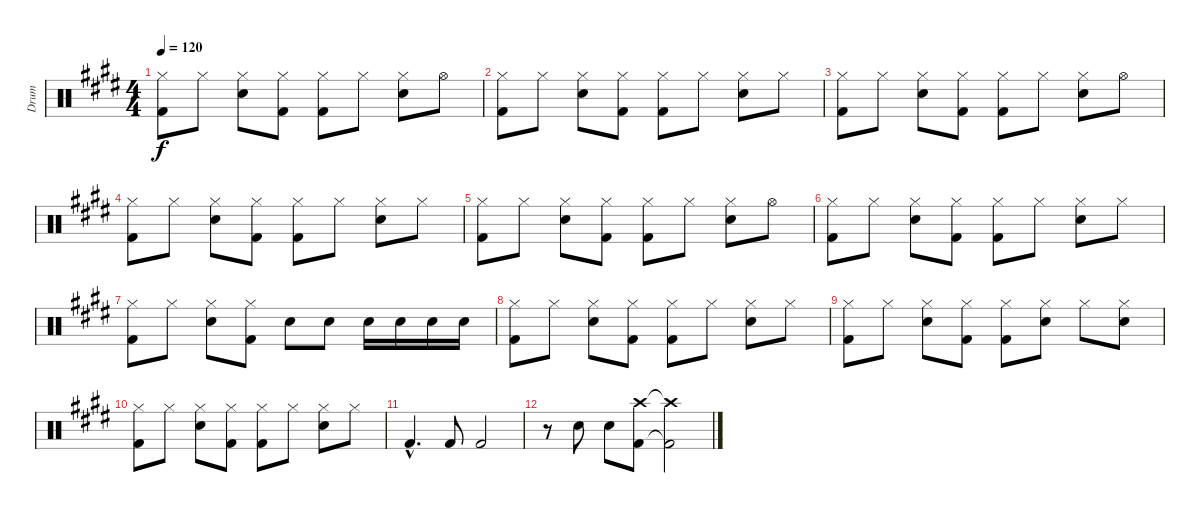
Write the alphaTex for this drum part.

\track ("Drum" "Drum") {instrument percussion}
\staff {score}
\articulation defaults
\ts (4 4)
\tempo 120
\clef neutral
\ks e
("Hi-Hat (closed)" "Kick (hit) 2").8{dy f} "Hi-Hat (closed)".8 ("Hi-Hat (closed)" "Snare (hit) 2").8 ("Hi-Hat (closed)" "Kick (hit) 2").8 ("Hi-Hat (closed)" "Kick (hit) 2").8 "Hi-Hat (closed)".8 ("Hi-Hat (closed)" "Snare (hit) 2").8 "Hi-Hat (open)".8 |
("Hi-Hat (closed)" "Kick (hit) 2").8 "Hi-Hat (closed)".8 ("Hi-Hat (closed)" "Snare (hit) 2").8 ("Hi-Hat (closed)" "Kick (hit) 2").8 ("Hi-Hat (closed)" "Kick (hit) 2").8 "Hi-Hat (closed)".8 ("Hi-Hat (closed)" "Snare (hit) 2").8 "Hi-Hat (closed)".8 |
("Hi-Hat (closed)" "Kick (hit) 2").8 "Hi-Hat (closed)".8 ("Hi-Hat (closed)" "Snare (hit) 2").8 ("Hi-Hat (closed)" "Kick (hit) 2").8 ("Hi-Hat (closed)" "Kick (hit) 2").8 "Hi-Hat (closed)".8 ("Hi-Hat (closed)" "Snare (hit) 2").8 "Hi-Hat (open)".8 |
("Hi-Hat (closed)" "Kick (hit) 2").8 "Hi-Hat (closed)".8 ("Hi-Hat (closed)" "Snare (hit) 2").8 ("Hi-Hat (closed)" "Kick (hit) 2").8 ("Hi-Hat (closed)" "Kick (hit) 2").8 "Hi-Hat (closed)".8 ("Hi-Hat (closed)" "Snare (hit) 2").8 "Hi-Hat (closed)".8 |
("Hi-Hat (closed)" "Kick (hit) 2").8 "Hi-Hat (closed)".8 ("Hi-Hat (closed)" "Snare (hit) 2").8 ("Hi-Hat (closed)" "Kick (hit) 2").8 ("Hi-Hat (closed)" "Kick (hit) 2").8 "Hi-Hat (closed)".8 ("Hi-Hat (closed)" "Snare (hit) 2").8 "Hi-Hat (open)".8 |
("Hi-Hat (closed)" "Kick (hit) 2").8 "Hi-Hat (closed)".8 ("Hi-Hat (closed)" "Snare (hit) 2").8 ("Hi-Hat (closed)" "Kick (hit) 2").8 ("Hi-Hat (closed)" "Kick (hit) 2").8 "Hi-Hat (closed)".8 ("Hi-Hat (closed)" "Snare (hit) 2").8 "Hi-Hat (closed)".8 |
("Hi-Hat (closed)" "Kick (hit) 2").8 "Hi-Hat (closed)".8 ("Hi-Hat (closed)" "Snare (hit) 2").8 ("Hi-Hat (closed)" "Kick (hit) 2").8 "Snare (hit) 2".8 "Snare (hit) 2".8 "Snare (hit) 2".16 "Snare (hit) 2".16 "Snare (hit) 2".16 "Snare (hit) 2".16 |
("Hi-Hat (closed)" "Kick (hit) 2").8 "Hi-Hat (closed)".8 ("Hi-Hat (closed)" "Snare (hit) 2").8 ("Hi-Hat (closed)" "Kick (hit) 2").8 ("Hi-Hat (closed)" "Kick (hit) 2").8 "Hi-Hat (closed)".8 ("Hi-Hat (closed)" "Snare (hit) 2").8 "Hi-Hat (closed)".8 |
("Hi-Hat (closed)" "Kick (hit) 2").8 "Hi-Hat (closed)".8 ("Hi-Hat (closed)" "Snare (hit) 2").8 ("Hi-Hat (closed)" "Kick (hit) 2").8 ("Hi-Hat (closed)" "Kick (hit) 2").8 ("Hi-Hat (closed)" "Snare (hit) 2").8 "Hi-Hat (closed)".8 ("Hi-Hat (closed)" "Snare (hit) 2").8 |
("Hi-Hat (closed)" "Kick (hit) 2").8 "Hi-Hat (closed)".8 ("Hi-Hat (closed)" "Snare (hit) 2").8 ("Hi-Hat (closed)" "Kick (hit) 2").8 ("Hi-Hat (closed)" "Kick (hit) 2").8 "Hi-Hat (closed)".8 ("Hi-Hat (closed)" "Snare (hit) 2").8 "Hi-Hat (closed)".8 |
"Kick (hit) 2"{hac}.4{d} "Kick (hit) 2".8 "Kick (hit) 2".2 |
r.8 "Snare (hit) 2".8 "Snare (hit) 2".8 ("Crash high (hit)" "Kick (hit) 2").8 ("Crash high (hit)"{t} "Kick (hit) 2"{t}).2
